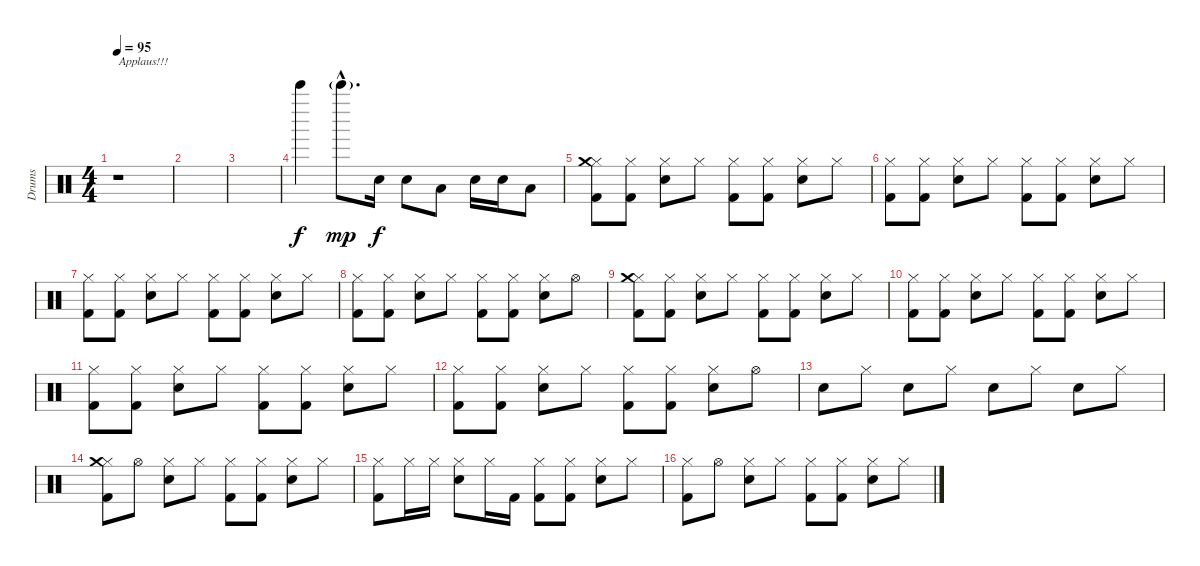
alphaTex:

\track ("Drums" "Drums") {instrument percussion}
\staff {score}
\articulation defaults
\ts (4 4)
\tempo 95
\clef neutral
\ks c
r.1{txt "Applaus!!!" dy f} |
|
|
"Bell Tree (hit)".4 "Bell Tree (hit)"{g hac}.8{d dy mp} "Snare (hit) 2".16{dy f} "Snare (hit) 2".8 "Low Tom (hit)".8 "Snare (hit) 2".16 "Snare (hit) 2".16 "Low Tom (hit)".8 |
("Hi-Hat (closed)" "Crash medium (hit)" "Kick (hit) 2").8 ("Hi-Hat (closed)" "Kick (hit) 2").8 ("Hi-Hat (closed)" "Snare (hit) 2").8 "Hi-Hat (closed)".8 ("Hi-Hat (closed)" "Kick (hit) 2").8 ("Hi-Hat (closed)" "Kick (hit) 2").8 ("Hi-Hat (closed)" "Snare (hit) 2").8 "Hi-Hat (closed)".8 |
("Hi-Hat (closed)" "Kick (hit) 2").8 ("Hi-Hat (closed)" "Kick (hit) 2").8 ("Hi-Hat (closed)" "Snare (hit) 2").8 "Hi-Hat (closed)".8 ("Hi-Hat (closed)" "Kick (hit) 2").8 ("Hi-Hat (closed)" "Kick (hit) 2").8 ("Hi-Hat (closed)" "Snare (hit) 2").8 "Hi-Hat (closed)".8 |
("Hi-Hat (closed)" "Kick (hit) 2").8 ("Hi-Hat (closed)" "Kick (hit) 2").8 ("Hi-Hat (closed)" "Snare (hit) 2").8 "Hi-Hat (closed)".8 ("Hi-Hat (closed)" "Kick (hit) 2").8 ("Hi-Hat (closed)" "Kick (hit) 2").8 ("Hi-Hat (closed)" "Snare (hit) 2").8 "Hi-Hat (closed)".8 |
("Hi-Hat (closed)" "Kick (hit) 2").8 ("Hi-Hat (closed)" "Kick (hit) 2").8 ("Hi-Hat (closed)" "Snare (hit) 2").8 "Hi-Hat (closed)".8 ("Hi-Hat (closed)" "Kick (hit) 2").8 ("Hi-Hat (closed)" "Kick (hit) 2").8 ("Hi-Hat (closed)" "Snare (hit) 2").8 "Hi-Hat (open)".8 |
("Hi-Hat (closed)" "Crash medium (hit)" "Kick (hit) 2").8 ("Hi-Hat (closed)" "Kick (hit) 2").8 ("Hi-Hat (closed)" "Snare (hit) 2").8 "Hi-Hat (closed)".8 ("Hi-Hat (closed)" "Kick (hit) 2").8 ("Hi-Hat (closed)" "Kick (hit) 2").8 ("Hi-Hat (closed)" "Snare (hit) 2").8 "Hi-Hat (closed)".8 |
("Hi-Hat (closed)" "Kick (hit) 2").8 ("Hi-Hat (closed)" "Kick (hit) 2").8 ("Hi-Hat (closed)" "Snare (hit) 2").8 "Hi-Hat (closed)".8 ("Hi-Hat (closed)" "Kick (hit) 2").8 ("Hi-Hat (closed)" "Kick (hit) 2").8 ("Hi-Hat (closed)" "Snare (hit) 2").8 "Hi-Hat (closed)".8 |
("Hi-Hat (closed)" "Kick (hit) 2").8 ("Hi-Hat (closed)" "Kick (hit) 2").8 ("Hi-Hat (closed)" "Snare (hit) 2").8 "Hi-Hat (closed)".8 ("Hi-Hat (closed)" "Kick (hit) 2").8 ("Hi-Hat (closed)" "Kick (hit) 2").8 ("Hi-Hat (closed)" "Snare (hit) 2").8 "Hi-Hat (closed)".8 |
("Hi-Hat (closed)" "Kick (hit) 2").8 ("Hi-Hat (closed)" "Kick (hit) 2").8 ("Hi-Hat (closed)" "Snare (hit) 2").8 "Hi-Hat (closed)".8 ("Hi-Hat (closed)" "Kick (hit) 2").8 ("Hi-Hat (closed)" "Kick (hit) 2").8 ("Hi-Hat (closed)" "Snare (hit) 2").8 "Hi-Hat (open)".8 |
"Snare (hit) 2".8 "Hi-Hat (closed)".8 "Snare (hit) 2".8 "Hi-Hat (closed)".8 "Snare (hit) 2".8 "Hi-Hat (closed)".8 "Snare (hit) 2".8 "Hi-Hat (closed)".8 |
("Hi-Hat (closed)" "Crash medium (hit)" "Kick (hit) 2").8 "Hi-Hat (open)".8 ("Hi-Hat (closed)" "Snare (hit) 2").8 "Hi-Hat (closed)".8 ("Hi-Hat (closed)" "Kick (hit) 2").8 ("Hi-Hat (closed)" "Kick (hit) 2").8 ("Hi-Hat (closed)" "Snare (hit) 2").8 "Hi-Hat (closed)".8 |
("Hi-Hat (closed)" "Kick (hit) 2").8 "Hi-Hat (closed)".16 "Hi-Hat (closed)".16 ("Hi-Hat (closed)" "Snare (hit) 2").8 "Hi-Hat (closed)".16 "Kick (hit) 2".16 ("Hi-Hat (closed)" "Kick (hit) 2").8 ("Hi-Hat (closed)" "Kick (hit) 2").8 ("Hi-Hat (closed)" "Snare (hit) 2").8 "Hi-Hat (closed)".8 |
("Hi-Hat (closed)" "Kick (hit) 2").8 "Hi-Hat (open)".8 ("Hi-Hat (closed)" "Snare (hit) 2").8 "Hi-Hat (closed)".8 ("Hi-Hat (closed)" "Kick (hit) 2").8 ("Hi-Hat (closed)" "Kick (hit) 2").8 ("Hi-Hat (closed)" "Snare (hit) 2").8 "Hi-Hat (closed)".8
